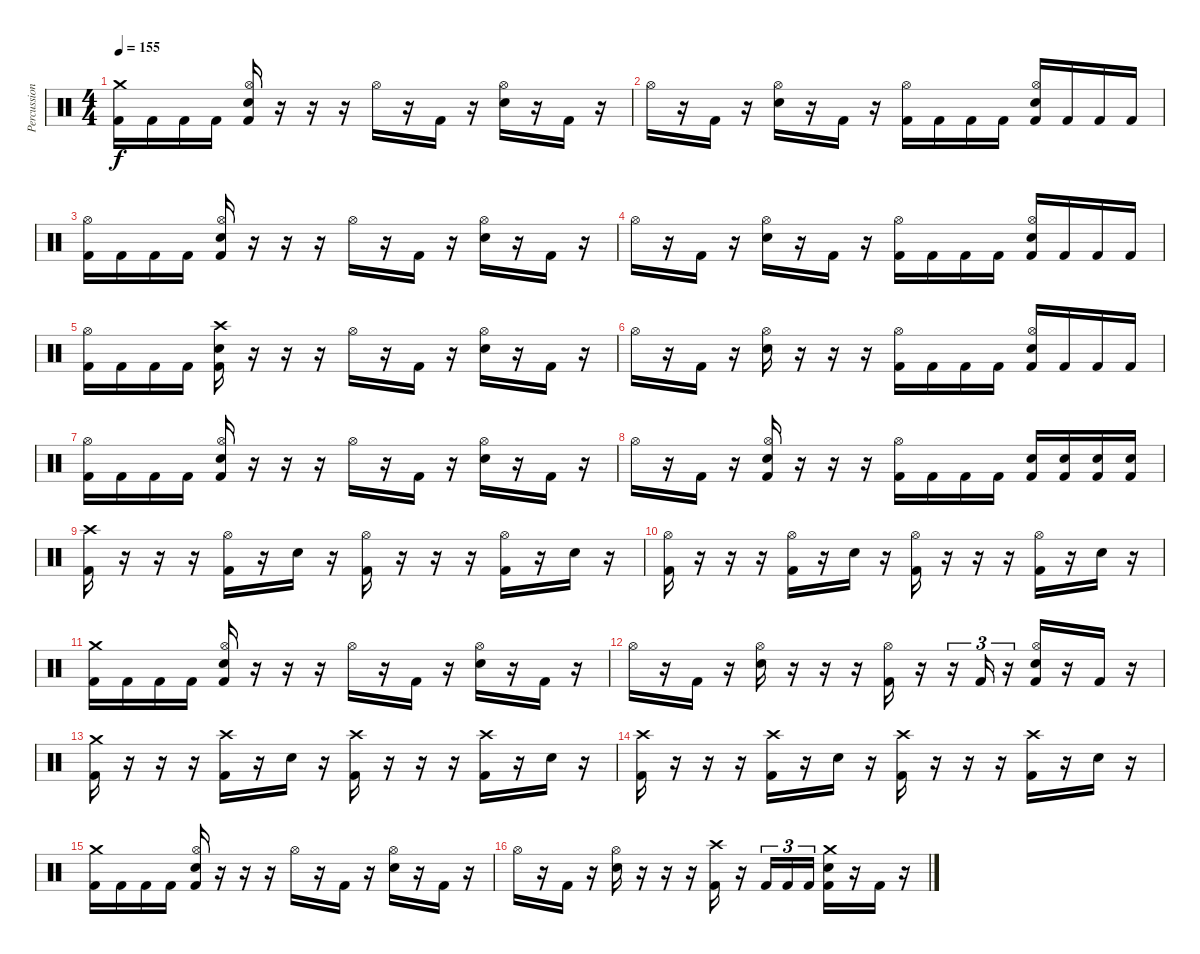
\track ("Percussion" "Percussion") {instrument percussion}
\staff {score}
\articulation defaults
\ts (4 4)
\tempo 155
\clef neutral
\ks c
("Crash medium (hit)" "Kick (hit) 2").16{dy f} "Kick (hit) 2".16 "Kick (hit) 2".16 "Kick (hit) 2".16 ("Hi-Hat (open)" "Snare (hit) 2" "Kick (hit) 2").16 r.16 r.16 r.16 "Hi-Hat (open)".16 r.16 "Kick (hit) 2".16 r.16 ("Hi-Hat (open)" "Snare (hit) 2").16 r.16 "Kick (hit) 2".16 r.16 |
"Hi-Hat (open)".16 r.16 "Kick (hit) 2".16 r.16 ("Hi-Hat (open)" "Snare (hit) 2").16 r.16 "Kick (hit) 2".16 r.16 ("Hi-Hat (open)" "Kick (hit) 2").16 "Kick (hit) 2".16 "Kick (hit) 2".16 "Kick (hit) 2".16 ("Hi-Hat (open)" "Snare (hit) 2" "Kick (hit) 2").16 "Kick (hit) 2".16 "Kick (hit) 2".16 "Kick (hit) 2".16 |
("Hi-Hat (open)" "Kick (hit) 2").16 "Kick (hit) 2".16 "Kick (hit) 2".16 "Kick (hit) 2".16 ("Hi-Hat (open)" "Snare (hit) 2" "Kick (hit) 2").16 r.16 r.16 r.16 "Hi-Hat (open)".16 r.16 "Kick (hit) 2".16 r.16 ("Hi-Hat (open)" "Snare (hit) 2").16 r.16 "Kick (hit) 2".16 r.16 |
"Hi-Hat (open)".16 r.16 "Kick (hit) 2".16 r.16 ("Hi-Hat (open)" "Snare (hit) 2").16 r.16 "Kick (hit) 2".16 r.16 ("Hi-Hat (open)" "Kick (hit) 2").16 "Kick (hit) 2".16 "Kick (hit) 2".16 "Kick (hit) 2".16 ("Hi-Hat (open)" "Snare (hit) 2" "Kick (hit) 2").16 "Kick (hit) 2".16 "Kick (hit) 2".16 "Kick (hit) 2".16 |
("Hi-Hat (open)" "Kick (hit) 2").16 "Kick (hit) 2".16 "Kick (hit) 2".16 "Kick (hit) 2".16 ("Crash high (hit)" "Snare (hit) 2" "Kick (hit) 2").16 r.16 r.16 r.16 "Hi-Hat (open)".16 r.16 "Kick (hit) 2".16 r.16 ("Hi-Hat (open)" "Snare (hit) 2").16 r.16 "Kick (hit) 2".16 r.16 |
"Hi-Hat (open)".16 r.16 "Kick (hit) 2".16 r.16 ("Hi-Hat (open)" "Snare (hit) 2").16 r.16 r.16 r.16 ("Hi-Hat (open)" "Kick (hit) 2").16 "Kick (hit) 2".16 "Kick (hit) 2".16 "Kick (hit) 2".16 ("Hi-Hat (open)" "Snare (hit) 2" "Kick (hit) 2").16 "Kick (hit) 2".16 "Kick (hit) 2".16 "Kick (hit) 2".16 |
("Hi-Hat (open)" "Kick (hit) 2").16 "Kick (hit) 2".16 "Kick (hit) 2".16 "Kick (hit) 2".16 ("Hi-Hat (open)" "Snare (hit) 2" "Kick (hit) 2").16 r.16 r.16 r.16 "Hi-Hat (open)".16 r.16 "Kick (hit) 2".16 r.16 ("Hi-Hat (open)" "Snare (hit) 2").16 r.16 "Kick (hit) 2".16 r.16 |
"Hi-Hat (open)".16 r.16 "Kick (hit) 2".16 r.16 ("Hi-Hat (open)" "Snare (hit) 2" "Kick (hit) 2").16 r.16 r.16 r.16 ("Hi-Hat (open)" "Kick (hit) 2").16 "Kick (hit) 2".16 "Kick (hit) 2".16 "Kick (hit) 2".16 ("Snare (hit) 2" "Kick (hit) 2").16 ("Snare (hit) 2" "Kick (hit) 2").16 ("Snare (hit) 2" "Kick (hit) 2").16 ("Snare (hit) 2" "Kick (hit) 2").16 |
("Crash high (hit)" "Kick (hit) 2").16 r.16 r.16 r.16 ("Hi-Hat (open)" "Kick (hit) 2").16 r.16 "Snare (hit) 2".16 r.16 ("Hi-Hat (open)" "Kick (hit) 2").16 r.16 r.16 r.16 ("Hi-Hat (open)" "Kick (hit) 2").16 r.16 "Snare (hit) 2".16 r.16 |
("Hi-Hat (open)" "Kick (hit) 2").16 r.16 r.16 r.16 ("Hi-Hat (open)" "Kick (hit) 2").16 r.16 "Snare (hit) 2".16 r.16 ("Hi-Hat (open)" "Kick (hit) 2").16 r.16 r.16 r.16 ("Hi-Hat (open)" "Kick (hit) 2").16 r.16 "Snare (hit) 2".16 r.16 |
("Crash medium (hit)" "Kick (hit) 2").16 "Kick (hit) 2".16 "Kick (hit) 2".16 "Kick (hit) 2".16 ("Hi-Hat (open)" "Snare (hit) 2" "Kick (hit) 2").16 r.16 r.16 r.16 "Hi-Hat (open)".16 r.16 "Kick (hit) 2".16 r.16 ("Hi-Hat (open)" "Snare (hit) 2").16 r.16 "Kick (hit) 2".16 r.16 |
"Hi-Hat (open)".16 r.16 "Kick (hit) 2".16 r.16 ("Hi-Hat (open)" "Snare (hit) 2").16 r.16 r.16 r.16 ("Hi-Hat (open)" "Kick (hit) 2").16 r.16 r.16{tu (3 2)} "Kick (hit) 2".16{tu (3 2)} r.16{tu (3 2)} ("Hi-Hat (open)" "Snare (hit) 2" "Kick (hit) 2").16 r.16 "Kick (hit) 2".16 r.16 |
("Crash medium (hit)" "Kick (hit) 2").16 r.16 r.16 r.16 ("Crash high (hit)" "Kick (hit) 2").16 r.16 "Snare (hit) 2".16 r.16 ("Crash high (hit)" "Kick (hit) 2").16 r.16 r.16 r.16 ("Crash high (hit)" "Kick (hit) 2").16 r.16 "Snare (hit) 2".16 r.16 |
("Crash high (hit)" "Kick (hit) 2").16 r.16 r.16 r.16 ("Crash high (hit)" "Kick (hit) 2").16 r.16 "Snare (hit) 2".16 r.16 ("Crash high (hit)" "Kick (hit) 2").16 r.16 r.16 r.16 ("Crash high (hit)" "Kick (hit) 2").16 r.16 "Snare (hit) 2".16 r.16 |
("Crash medium (hit)" "Kick (hit) 2").16 "Kick (hit) 2".16 "Kick (hit) 2".16 "Kick (hit) 2".16 ("Hi-Hat (open)" "Snare (hit) 2" "Kick (hit) 2").16 r.16 r.16 r.16 "Hi-Hat (open)".16 r.16 "Kick (hit) 2".16 r.16 ("Hi-Hat (open)" "Snare (hit) 2").16 r.16 "Kick (hit) 2".16 r.16 |
"Hi-Hat (open)".16 r.16 "Kick (hit) 2".16 r.16 ("Hi-Hat (open)" "Snare (hit) 2").16 r.16 r.16 r.16 ("Crash high (hit)" "Kick (hit) 2").16 r.16 "Kick (hit) 2".16{tu (3 2)} "Kick (hit) 2".16{tu (3 2)} "Kick (hit) 2".16{tu (3 2)} ("Crash medium (hit)" "Snare (hit) 2" "Kick (hit) 2").16 r.16 "Kick (hit) 2".16 r.16
